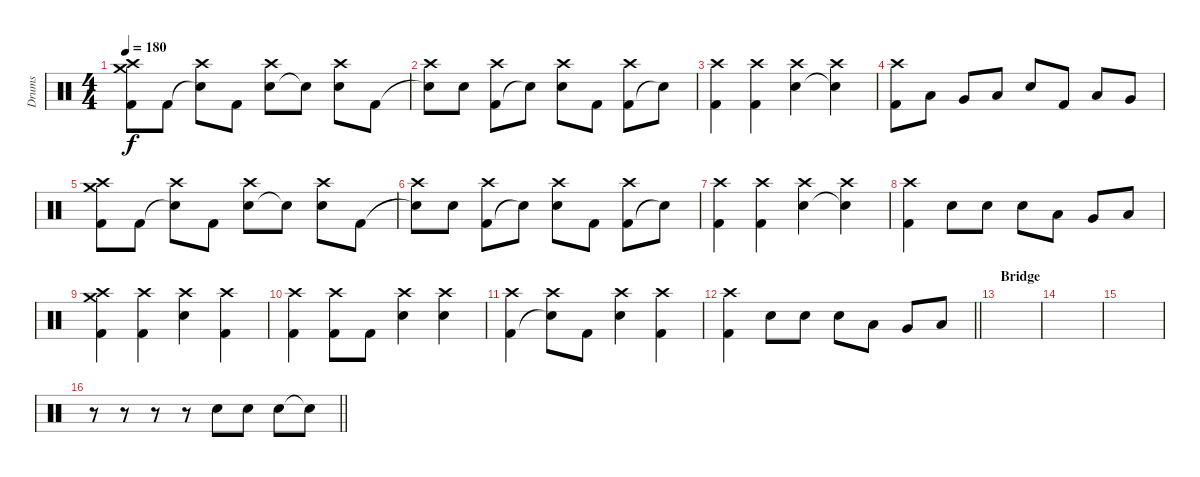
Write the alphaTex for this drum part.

\track ("Drums" "Drums") {instrument percussion}
\staff {score}
\articulation defaults
\ts (4 4)
\tempo 180
\clef neutral
\ks c
("Kick (hit) 2" "Crash medium (hit)" "Crash high (hit)").8{dy f} "Kick (hit) 2".8 ("Snare (hit)"{t} "Crash high (hit)").8 "Kick (hit) 2".8 ("Electric Snare (hit)" "Crash high (hit)").8 "Snare (hit)"{t}.8 ("Electric Snare (hit)" "Crash high (hit)").8 "Kick (hit) 2".8 |
("Snare (hit)"{t} "Crash high (hit)").8 "Electric Snare (hit)".8 ("Kick (hit) 2" "Crash high (hit)").8 "Snare (hit)"{t}.8 ("Electric Snare (hit)" "Crash high (hit)").8 "Kick (hit) 2".8 ("Kick (hit) 2" "Crash high (hit)").8 "Electric Snare (hit)"{t}.8 |
("Kick (hit) 2" "Crash high (hit)").4 ("Kick (hit) 2" "Crash high (hit)").4 ("Electric Snare (hit)" "Crash high (hit)").4 ("Snare (hit)"{t} "Crash high (hit)").4 |
("Kick (hit) 2" "Crash high (hit)").8 "Low Tom (hit)".8 "Very Low Tom (hit)".8 "Low Floor Tom (hit)".8 "Electric Snare (hit)".8 "Kick (hit) 2".8 "Low Tom (hit)".8 "Very Low Tom (hit)".8 |
("Kick (hit) 2" "Crash medium (hit)" "Crash high (hit)").8 "Kick (hit) 2".8 ("Snare (hit)"{t} "Crash high (hit)").8 "Kick (hit) 2".8 ("Electric Snare (hit)" "Crash high (hit)").8 "Snare (hit)"{t}.8 ("Electric Snare (hit)" "Crash high (hit)").8 "Kick (hit) 2".8 |
("Snare (hit)"{t} "Crash high (hit)").8 "Electric Snare (hit)".8 ("Kick (hit) 2" "Crash high (hit)").8 "Snare (hit)"{t}.8 ("Electric Snare (hit)" "Crash high (hit)").8 "Kick (hit) 2".8 ("Kick (hit) 2" "Crash high (hit)").8 "Electric Snare (hit)"{t}.8 |
("Kick (hit) 2" "Crash high (hit)").4 ("Kick (hit) 2" "Crash high (hit)").4 ("Electric Snare (hit)" "Crash high (hit)").4 ("Snare (hit)"{t} "Crash high (hit)").4 |
("Kick (hit) 2" "Crash high (hit)").4 "Electric Snare (hit)".8 "Electric Snare (hit)".8 "Electric Snare (hit)".8 "Low Tom (hit)".8 "Very Low Tom (hit)".8 "Low Floor Tom (hit)".8 |
("Kick (hit) 2" "Crash medium (hit)" "Crash high (hit)").4 ("Kick (hit) 2" "Crash high (hit)").4 ("Electric Snare (hit)" "Crash high (hit)").4 ("Kick (hit) 2" "Crash high (hit)").4 |
("Kick (hit) 2" "Crash high (hit)").4 ("Kick (hit) 2" "Crash high (hit)").8 "Kick (hit) 2".8 ("Electric Snare (hit)" "Crash high (hit)").4 ("Electric Snare (hit)" "Crash high (hit)").4 |
("Kick (hit) 2" "Crash high (hit)").4 ("Snare (hit)"{t} "Crash high (hit)").8 "Kick (hit) 2".8 ("Electric Snare (hit)" "Crash high (hit)").4 ("Kick (hit) 2" "Crash high (hit)").4 |
\barLineRight lightlight
("Kick (hit) 2" "Crash high (hit)").4 "Electric Snare (hit)".8 "Electric Snare (hit)".8 "Electric Snare (hit)".8 "Low Tom (hit)".8 "Very Low Tom (hit)".8 "Low Floor Tom (hit)".8 |
\section ("" "Bridge")
|
|
|
\barLineRight lightlight
r.8 r.8 r.8 r.8 "Electric Snare (hit)".8 "Electric Snare (hit)".8 "Electric Snare (hit)".8 "Electric Snare (hit)"{t}.8
